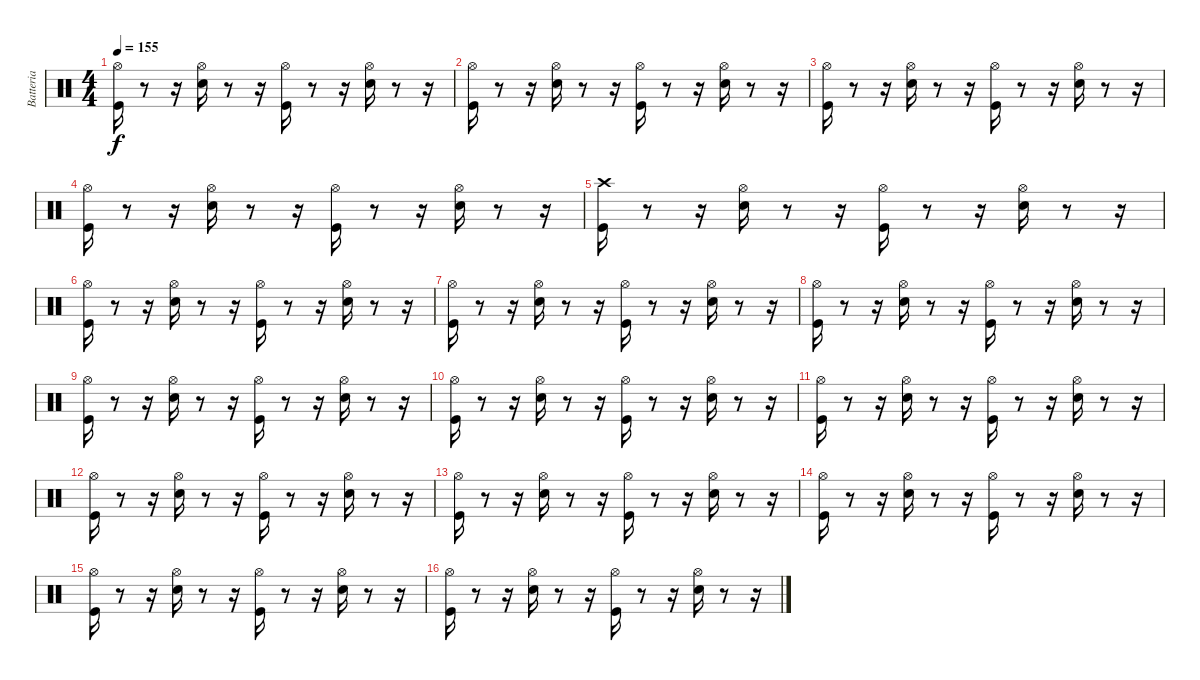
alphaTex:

\track ("Batteria" "Batteria") {instrument percussion bank 20}
\staff {score}
\articulation defaults
\ts (4 4)
\tempo 155
\clef neutral
\ks c
("Hi-Hat (open)" "Kick (hit)").16{dy f} r.8 r.16 ("Hi-Hat (open)" "Snare (hit) 2").16 r.8 r.16 ("Kick (hit)" "Hi-Hat (open)").16 r.8 r.16 ("Snare (hit) 2" "Hi-Hat (open)").16 r.8 r.16 |
("Hi-Hat (open)" "Kick (hit)").16 r.8 r.16 ("Hi-Hat (open)" "Snare (hit) 2").16 r.8 r.16 ("Kick (hit)" "Hi-Hat (open)").16 r.8 r.16 ("Snare (hit) 2" "Hi-Hat (open)").16 r.8 r.16 |
("Hi-Hat (open)" "Kick (hit)").16 r.8 r.16 ("Hi-Hat (open)" "Snare (hit) 2").16 r.8 r.16 ("Kick (hit)" "Hi-Hat (open)").16 r.8 r.16 ("Snare (hit) 2" "Hi-Hat (open)").16 r.8 r.16 |
("Hi-Hat (open)" "Kick (hit)").16 r.8 r.16 ("Hi-Hat (open)" "Snare (hit) 2").16 r.8 r.16 ("Kick (hit)" "Hi-Hat (open)").16 r.8 r.16 ("Snare (hit) 2" "Hi-Hat (open)").16 r.8 r.16 |
("Crash high (hit)" "Kick (hit)").16 r.8 r.16 ("Hi-Hat (open)" "Snare (hit) 2").16 r.8 r.16 ("Kick (hit)" "Hi-Hat (open)").16 r.8 r.16 ("Snare (hit) 2" "Hi-Hat (open)").16 r.8 r.16 |
("Hi-Hat (open)" "Kick (hit)").16 r.8 r.16 ("Hi-Hat (open)" "Snare (hit) 2").16 r.8 r.16 ("Kick (hit)" "Hi-Hat (open)").16 r.8 r.16 ("Snare (hit) 2" "Hi-Hat (open)").16 r.8 r.16 |
("Hi-Hat (open)" "Kick (hit)").16 r.8 r.16 ("Hi-Hat (open)" "Snare (hit) 2").16 r.8 r.16 ("Kick (hit)" "Hi-Hat (open)").16 r.8 r.16 ("Snare (hit) 2" "Hi-Hat (open)").16 r.8 r.16 |
("Hi-Hat (open)" "Kick (hit)").16 r.8 r.16 ("Hi-Hat (open)" "Snare (hit) 2").16 r.8 r.16 ("Kick (hit)" "Hi-Hat (open)").16 r.8 r.16 ("Snare (hit) 2" "Hi-Hat (open)").16 r.8 r.16 |
("Hi-Hat (open)" "Kick (hit)").16 r.8 r.16 ("Hi-Hat (open)" "Snare (hit) 2").16 r.8 r.16 ("Kick (hit)" "Hi-Hat (open)").16 r.8 r.16 ("Snare (hit) 2" "Hi-Hat (open)").16 r.8 r.16 |
("Hi-Hat (open)" "Kick (hit)").16 r.8 r.16 ("Hi-Hat (open)" "Snare (hit) 2").16 r.8 r.16 ("Kick (hit)" "Hi-Hat (open)").16 r.8 r.16 ("Snare (hit) 2" "Hi-Hat (open)").16 r.8 r.16 |
("Hi-Hat (open)" "Kick (hit)").16 r.8 r.16 ("Hi-Hat (open)" "Snare (hit) 2").16 r.8 r.16 ("Kick (hit)" "Hi-Hat (open)").16 r.8 r.16 ("Snare (hit) 2" "Hi-Hat (open)").16 r.8 r.16 |
("Hi-Hat (open)" "Kick (hit)").16 r.8 r.16 ("Hi-Hat (open)" "Snare (hit) 2").16 r.8 r.16 ("Kick (hit)" "Hi-Hat (open)").16 r.8 r.16 ("Snare (hit) 2" "Hi-Hat (open)").16 r.8 r.16 |
("Hi-Hat (open)" "Kick (hit)").16 r.8 r.16 ("Hi-Hat (open)" "Snare (hit) 2").16 r.8 r.16 ("Kick (hit)" "Hi-Hat (open)").16 r.8 r.16 ("Snare (hit) 2" "Hi-Hat (open)").16 r.8 r.16 |
("Hi-Hat (open)" "Kick (hit)").16 r.8 r.16 ("Hi-Hat (open)" "Snare (hit) 2").16 r.8 r.16 ("Kick (hit)" "Hi-Hat (open)").16 r.8 r.16 ("Snare (hit) 2" "Hi-Hat (open)").16 r.8 r.16 |
("Hi-Hat (open)" "Kick (hit)").16 r.8 r.16 ("Hi-Hat (open)" "Snare (hit) 2").16 r.8 r.16 ("Kick (hit)" "Hi-Hat (open)").16 r.8 r.16 ("Snare (hit) 2" "Hi-Hat (open)").16 r.8 r.16 |
("Hi-Hat (open)" "Kick (hit)").16 r.8 r.16 ("Hi-Hat (open)" "Snare (hit) 2").16 r.8 r.16 ("Kick (hit)" "Hi-Hat (open)").16 r.8 r.16 ("Snare (hit) 2" "Hi-Hat (open)").16 r.8 r.16
